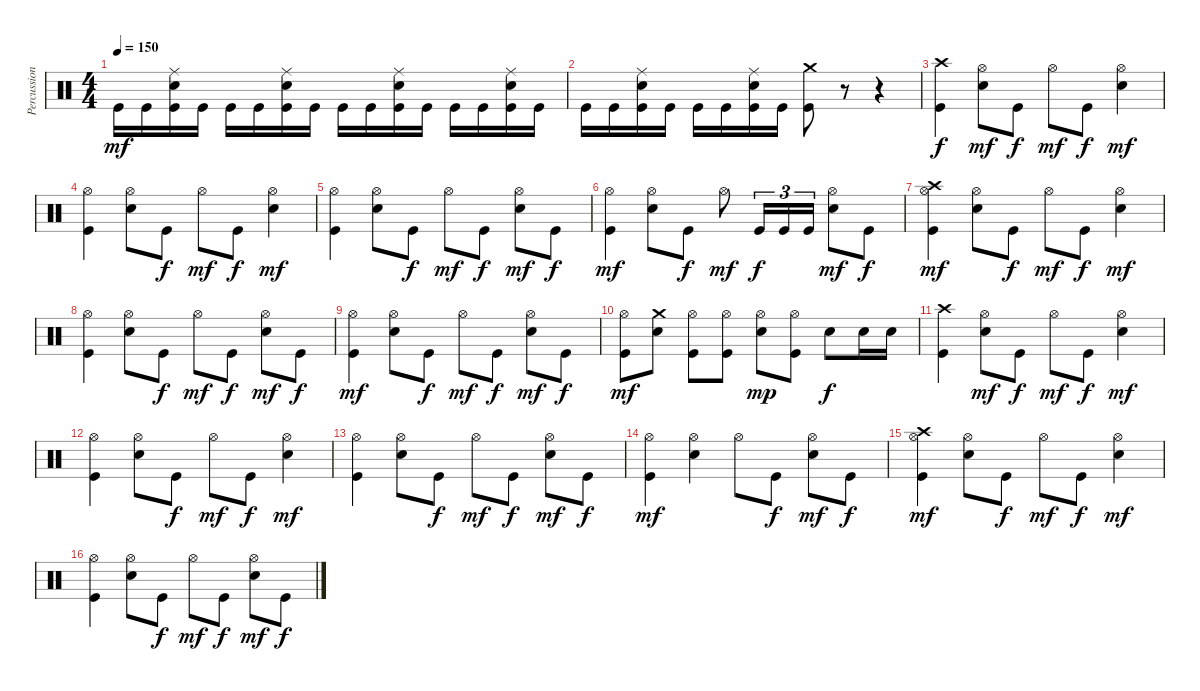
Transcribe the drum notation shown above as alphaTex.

\track ("Percussions" "Percussion") {instrument percussion}
\staff {score}
\articulation defaults
\ts (4 4)
\tempo 150
\clef neutral
\ks c "Kick (hit)".16{dy mf} "Kick (hit)".16
("Kick (hit)" "Electric Snare (hit)" "Ride (middle)").16 "Kick (hit)".16 "Kick (hit)".16 "Kick (hit)".16 ("Kick (hit)" "Electric Snare (hit)" "Ride (middle)").16 "Kick (hit)".16 "Kick (hit)".16 "Kick (hit)".16 ("Kick (hit)" "Electric Snare (hit)" "Ride (middle)").16 "Kick (hit)".16 "Kick (hit)".16 "Kick (hit)".16 ("Kick (hit)" "Electric Snare (hit)" "Ride (middle)").16 "Kick (hit)".16 |
"Kick (hit)".16 "Kick (hit)".16 ("Kick (hit)" "Electric Snare (hit)" "Ride (middle)").16 "Kick (hit)".16 "Kick (hit)".16 "Kick (hit)".16 ("Kick (hit)" "Electric Snare (hit)" "Ride (middle)").16 "Kick (hit)".16 ("Kick (hit)" "Crash medium (hit)").8 r.8 r.4 |
("Kick (hit)" "Crash high (hit)").4{dy f} ("Electric Snare (hit)" "Hi-Hat (open)").8{dy mf} "Kick (hit)".8{dy f} "Hi-Hat (open)".8{dy mf} "Kick (hit)".8{dy f} ("Electric Snare (hit)" "Hi-Hat (open)").4{dy mf} |
("Kick (hit)" "Hi-Hat (open)").4 ("Electric Snare (hit)" "Hi-Hat (open)").8 "Kick (hit)".8{dy f} "Hi-Hat (open)".8{dy mf} "Kick (hit)".8{dy f} ("Electric Snare (hit)" "Hi-Hat (open)").4{dy mf} |
("Kick (hit)" "Hi-Hat (open)").4 ("Electric Snare (hit)" "Hi-Hat (open)").8 "Kick (hit)".8{dy f} "Hi-Hat (open)".8{dy mf} "Kick (hit)".8{dy f} ("Electric Snare (hit)" "Hi-Hat (open)").8{dy mf} "Kick (hit)".8{dy f} |
("Kick (hit)" "Hi-Hat (open)").4{dy mf} ("Electric Snare (hit)" "Hi-Hat (open)").8 "Kick (hit)".8{dy f} "Hi-Hat (open)".8{dy mf} "Kick (hit)".16{tu (3 2) dy f} "Kick (hit)".16{tu (3 2)} "Kick (hit)".16{tu (3 2)} ("Electric Snare (hit)" "Hi-Hat (open)").8{dy mf} "Kick (hit)".8{dy f} |
("Kick (hit)" "Hi-Hat (open)" "Crash high (hit)").4{dy mf} ("Electric Snare (hit)" "Hi-Hat (open)").8 "Kick (hit)".8{dy f} "Hi-Hat (open)".8{dy mf} "Kick (hit)".8{dy f} ("Electric Snare (hit)" "Hi-Hat (open)").4{dy mf} |
("Kick (hit)" "Hi-Hat (open)").4 ("Electric Snare (hit)" "Hi-Hat (open)").8 "Kick (hit)".8{dy f} "Hi-Hat (open)".8{dy mf} "Kick (hit)".8{dy f} ("Electric Snare (hit)" "Hi-Hat (open)").8{dy mf} "Kick (hit)".8{dy f} |
("Kick (hit)" "Hi-Hat (open)").4{dy mf} ("Electric Snare (hit)" "Hi-Hat (open)").8 "Kick (hit)".8{dy f} "Hi-Hat (open)".8{dy mf} "Kick (hit)".8{dy f} ("Electric Snare (hit)" "Hi-Hat (open)").8{dy mf} "Kick (hit)".8{dy f} |
("Kick (hit)" "Hi-Hat (open)").8{dy mf} ("Electric Snare (hit)" "Crash medium (hit)").8 ("Kick (hit)" "Hi-Hat (open)").8 ("Kick (hit)" "Hi-Hat (open)").8 ("Electric Snare (hit)" "Hi-Hat (open)").8{dy mp} ("Kick (hit)" "Hi-Hat (open)").8 "Electric Snare (hit)".8{dy f} "Electric Snare (hit)".16 "Electric Snare (hit)".16 |
("Kick (hit)" "Crash high (hit)").4 ("Electric Snare (hit)" "Hi-Hat (open)").8{dy mf} "Kick (hit)".8{dy f} "Hi-Hat (open)".8{dy mf} "Kick (hit)".8{dy f} ("Electric Snare (hit)" "Hi-Hat (open)").4{dy mf} |
("Kick (hit)" "Hi-Hat (open)").4 ("Electric Snare (hit)" "Hi-Hat (open)").8 "Kick (hit)".8{dy f} "Hi-Hat (open)".8{dy mf} "Kick (hit)".8{dy f} ("Electric Snare (hit)" "Hi-Hat (open)").4{dy mf} |
("Kick (hit)" "Hi-Hat (open)").4 ("Electric Snare (hit)" "Hi-Hat (open)").8 "Kick (hit)".8{dy f} "Hi-Hat (open)".8{dy mf} "Kick (hit)".8{dy f} ("Electric Snare (hit)" "Hi-Hat (open)").8{dy mf} "Kick (hit)".8{dy f} |
("Kick (hit)" "Hi-Hat (open)").4{dy mf} ("Electric Snare (hit)" "Hi-Hat (open)").4 "Hi-Hat (open)".8 "Kick (hit)".8{dy f} ("Electric Snare (hit)" "Hi-Hat (open)").8{dy mf} "Kick (hit)".8{dy f} |
("Kick (hit)" "Hi-Hat (open)" "Crash high (hit)").4{dy mf} ("Electric Snare (hit)" "Hi-Hat (open)").8 "Kick (hit)".8{dy f} "Hi-Hat (open)".8{dy mf} "Kick (hit)".8{dy f} ("Electric Snare (hit)" "Hi-Hat (open)").4{dy mf} |
("Kick (hit)" "Hi-Hat (open)").4 ("Electric Snare (hit)" "Hi-Hat (open)").8 "Kick (hit)".8{dy f} "Hi-Hat (open)".8{dy mf} "Kick (hit)".8{dy f} ("Electric Snare (hit)" "Hi-Hat (open)").8{dy mf} "Kick (hit)".8{dy f}
